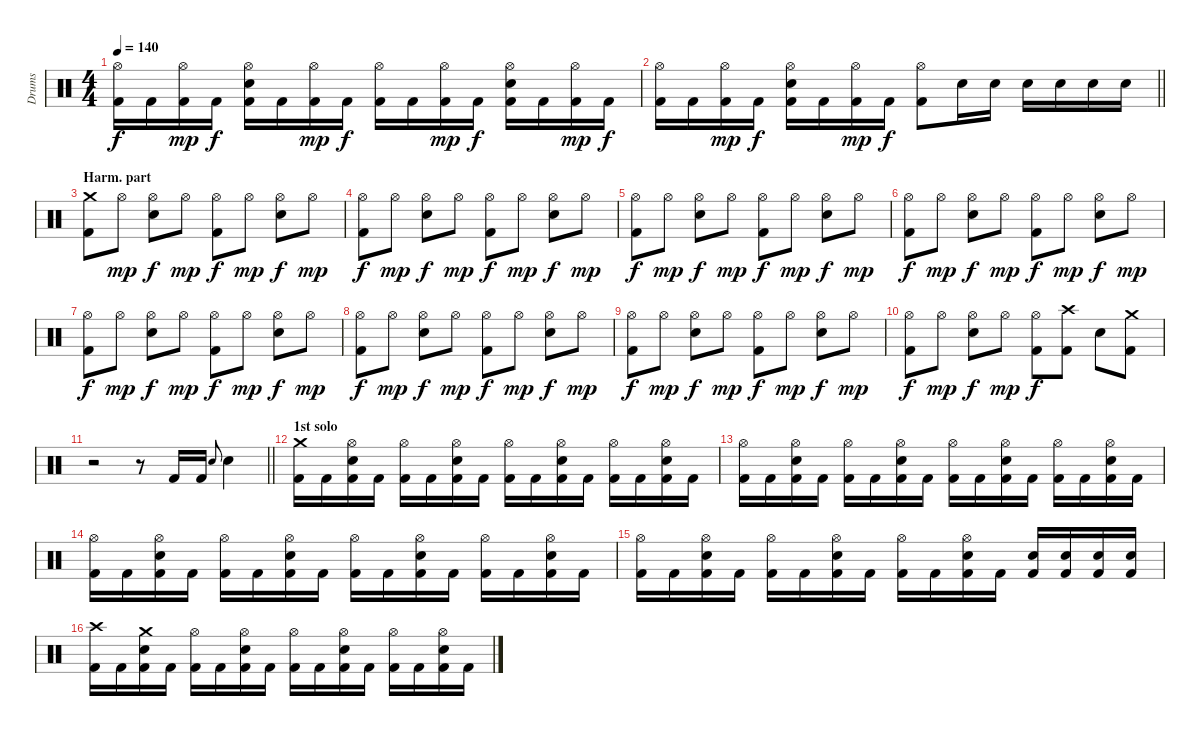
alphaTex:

\track ("Drums" "Drums") {instrument percussion}
\staff {score}
\articulation defaults
\ts (4 4)
\tempo 140
\clef neutral
\ks c
("Hi-Hat (open)" "Kick (hit) 2").16{dy f} "Kick (hit) 2".16 ("Hi-Hat (open)" "Kick (hit) 2").16{dy mp} "Kick (hit) 2".16{dy f} ("Hi-Hat (open)" "Electric Snare (hit)" "Kick (hit) 2").16 "Kick (hit) 2".16 ("Hi-Hat (open)" "Kick (hit) 2").16{dy mp} "Kick (hit) 2".16{dy f} ("Hi-Hat (open)" "Kick (hit) 2").16 "Kick (hit) 2".16 ("Hi-Hat (open)" "Kick (hit) 2").16{dy mp} "Kick (hit) 2".16{dy f} ("Hi-Hat (open)" "Electric Snare (hit)" "Kick (hit) 2").16 "Kick (hit) 2".16 ("Hi-Hat (open)" "Kick (hit) 2").16{dy mp} "Kick (hit) 2".16{dy f} |
\barLineRight lightlight
("Hi-Hat (open)" "Kick (hit) 2").16 "Kick (hit) 2".16 ("Hi-Hat (open)" "Kick (hit) 2").16{dy mp} "Kick (hit) 2".16{dy f} ("Hi-Hat (open)" "Electric Snare (hit)" "Kick (hit) 2").16 "Kick (hit) 2".16 ("Hi-Hat (open)" "Kick (hit) 2").16{dy mp} "Kick (hit) 2".16{dy f} ("Hi-Hat (open)" "Kick (hit) 2").8 "Electric Snare (hit)".16 "Electric Snare (hit)".16 "Electric Snare (hit)".16 "Electric Snare (hit)".16 "Electric Snare (hit)".16 "Electric Snare (hit)".16 |
\section ("" "Harm. part")
("Crash medium (hit)" "Kick (hit) 2").8 "Hi-Hat (open)".8{dy mp} ("Electric Snare (hit)" "Hi-Hat (open)").8{dy f} "Hi-Hat (open)".8{dy mp} ("Kick (hit) 2" "Hi-Hat (open)").8{dy f} "Hi-Hat (open)".8{dy mp} ("Electric Snare (hit)" "Hi-Hat (open)").8{dy f} "Hi-Hat (open)".8{dy mp} |
("Hi-Hat (open)" "Kick (hit) 2").8{dy f} "Hi-Hat (open)".8{dy mp} ("Electric Snare (hit)" "Hi-Hat (open)").8{dy f} "Hi-Hat (open)".8{dy mp} ("Kick (hit) 2" "Hi-Hat (open)").8{dy f} "Hi-Hat (open)".8{dy mp} ("Electric Snare (hit)" "Hi-Hat (open)").8{dy f} "Hi-Hat (open)".8{dy mp} |
("Hi-Hat (open)" "Kick (hit) 2").8{dy f} "Hi-Hat (open)".8{dy mp} ("Electric Snare (hit)" "Hi-Hat (open)").8{dy f} "Hi-Hat (open)".8{dy mp} ("Kick (hit) 2" "Hi-Hat (open)").8{dy f} "Hi-Hat (open)".8{dy mp} ("Electric Snare (hit)" "Hi-Hat (open)").8{dy f} "Hi-Hat (open)".8{dy mp} |
("Hi-Hat (open)" "Kick (hit) 2").8{dy f} "Hi-Hat (open)".8{dy mp} ("Electric Snare (hit)" "Hi-Hat (open)").8{dy f} "Hi-Hat (open)".8{dy mp} ("Kick (hit) 2" "Hi-Hat (open)").8{dy f} "Hi-Hat (open)".8{dy mp} ("Electric Snare (hit)" "Hi-Hat (open)").8{dy f} "Hi-Hat (open)".8{dy mp} |
("Hi-Hat (open)" "Kick (hit) 2").8{dy f} "Hi-Hat (open)".8{dy mp} ("Electric Snare (hit)" "Hi-Hat (open)").8{dy f} "Hi-Hat (open)".8{dy mp} ("Kick (hit) 2" "Hi-Hat (open)").8{dy f} "Hi-Hat (open)".8{dy mp} ("Electric Snare (hit)" "Hi-Hat (open)").8{dy f} "Hi-Hat (open)".8{dy mp} |
("Hi-Hat (open)" "Kick (hit) 2").8{dy f} "Hi-Hat (open)".8{dy mp} ("Electric Snare (hit)" "Hi-Hat (open)").8{dy f} "Hi-Hat (open)".8{dy mp} ("Kick (hit) 2" "Hi-Hat (open)").8{dy f} "Hi-Hat (open)".8{dy mp} ("Electric Snare (hit)" "Hi-Hat (open)").8{dy f} "Hi-Hat (open)".8{dy mp} |
("Hi-Hat (open)" "Kick (hit) 2").8{dy f} "Hi-Hat (open)".8{dy mp} ("Electric Snare (hit)" "Hi-Hat (open)").8{dy f} "Hi-Hat (open)".8{dy mp} ("Kick (hit) 2" "Hi-Hat (open)").8{dy f} "Hi-Hat (open)".8{dy mp} ("Electric Snare (hit)" "Hi-Hat (open)").8{dy f} "Hi-Hat (open)".8{dy mp} |
("Hi-Hat (open)" "Kick (hit) 2").8{dy f} "Hi-Hat (open)".8{dy mp} ("Electric Snare (hit)" "Hi-Hat (open)").8{dy f} "Hi-Hat (open)".8{dy mp} ("Kick (hit) 2" "Hi-Hat (open)").8{dy f} ("Kick (hit) 2" "Crash high (hit)").8 "Electric Snare (hit)".8 ("Kick (hit) 2" "Crash medium (hit)").8 |
\barLineRight lightlight
r.2 r.8 "Kick (hit) 2".16 "Kick (hit) 2".16 "Electric Snare (hit)".8{gr onbeat} "Electric Snare (hit)".4 |
\section ("" "1st solo")
("Crash medium (hit)" "Kick (hit) 2").16 "Kick (hit) 2".16 ("Electric Snare (hit)" "Hi-Hat (open)" "Kick (hit) 2").16 "Kick (hit) 2".16 ("Hi-Hat (open)" "Kick (hit) 2").16 "Kick (hit) 2".16 ("Electric Snare (hit)" "Hi-Hat (open)" "Kick (hit) 2").16 "Kick (hit) 2".16 ("Hi-Hat (open)" "Kick (hit) 2").16 "Kick (hit) 2".16 ("Electric Snare (hit)" "Hi-Hat (open)" "Kick (hit) 2").16 "Kick (hit) 2".16 ("Hi-Hat (open)" "Kick (hit) 2").16 "Kick (hit) 2".16 ("Kick (hit) 2" "Electric Snare (hit)" "Hi-Hat (open)").16 "Kick (hit) 2".16 |
("Hi-Hat (open)" "Kick (hit) 2").16 "Kick (hit) 2".16 ("Electric Snare (hit)" "Hi-Hat (open)" "Kick (hit) 2").16 "Kick (hit) 2".16 ("Hi-Hat (open)" "Kick (hit) 2").16 "Kick (hit) 2".16 ("Kick (hit) 2" "Electric Snare (hit)" "Hi-Hat (open)").16 "Kick (hit) 2".16 ("Hi-Hat (open)" "Kick (hit) 2").16 "Kick (hit) 2".16 ("Electric Snare (hit)" "Hi-Hat (open)" "Kick (hit) 2").16 "Kick (hit) 2".16 ("Hi-Hat (open)" "Kick (hit) 2").16 "Kick (hit) 2".16 ("Kick (hit) 2" "Electric Snare (hit)" "Hi-Hat (open)").16 "Kick (hit) 2".16 |
("Hi-Hat (open)" "Kick (hit) 2").16 "Kick (hit) 2".16 ("Electric Snare (hit)" "Hi-Hat (open)" "Kick (hit) 2").16 "Kick (hit) 2".16 ("Hi-Hat (open)" "Kick (hit) 2").16 "Kick (hit) 2".16 ("Kick (hit) 2" "Electric Snare (hit)" "Hi-Hat (open)").16 "Kick (hit) 2".16 ("Hi-Hat (open)" "Kick (hit) 2").16 "Kick (hit) 2".16 ("Electric Snare (hit)" "Hi-Hat (open)" "Kick (hit) 2").16 "Kick (hit) 2".16 ("Hi-Hat (open)" "Kick (hit) 2").16 "Kick (hit) 2".16 ("Kick (hit) 2" "Electric Snare (hit)" "Hi-Hat (open)").16 "Kick (hit) 2".16 |
("Hi-Hat (open)" "Kick (hit) 2").16 "Kick (hit) 2".16 ("Electric Snare (hit)" "Hi-Hat (open)" "Kick (hit) 2").16 "Kick (hit) 2".16 ("Hi-Hat (open)" "Kick (hit) 2").16 "Kick (hit) 2".16 ("Kick (hit) 2" "Electric Snare (hit)" "Hi-Hat (open)").16 "Kick (hit) 2".16 ("Hi-Hat (open)" "Kick (hit) 2").16 "Kick (hit) 2".16 ("Electric Snare (hit)" "Hi-Hat (open)" "Kick (hit) 2").16 "Kick (hit) 2".16 ("Kick (hit) 2" "Electric Snare (hit)").16 ("Kick (hit) 2" "Electric Snare (hit)").16 ("Kick (hit) 2" "Electric Snare (hit)").16 ("Kick (hit) 2" "Electric Snare (hit)").16 |
("Crash high (hit)" "Kick (hit) 2").16 "Kick (hit) 2".16 ("Electric Snare (hit)" "Crash medium (hit)" "Kick (hit) 2").16 "Kick (hit) 2".16 ("Hi-Hat (open)" "Kick (hit) 2").16 "Kick (hit) 2".16 ("Electric Snare (hit)" "Hi-Hat (open)" "Kick (hit) 2").16 "Kick (hit) 2".16 ("Hi-Hat (open)" "Kick (hit) 2").16 "Kick (hit) 2".16 ("Electric Snare (hit)" "Hi-Hat (open)" "Kick (hit) 2").16 "Kick (hit) 2".16 ("Hi-Hat (open)" "Kick (hit) 2").16 "Kick (hit) 2".16 ("Kick (hit) 2" "Electric Snare (hit)" "Hi-Hat (open)").16 "Kick (hit) 2".16
